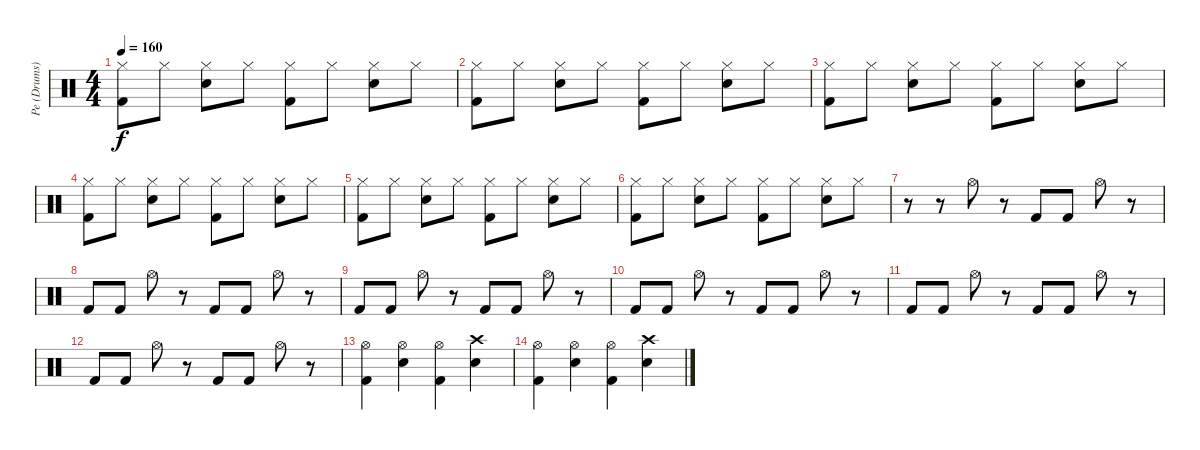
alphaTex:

\track ("Pe (Drums)" "Pe (Drums)") {instrument percussion}
\staff {score}
\articulation defaults
\ts (4 4)
\tempo 160
\clef neutral
\ks c
("Hi-Hat (closed)" "Kick (hit) 2").8{dy f} "Hi-Hat (closed)".8 ("Hi-Hat (closed)" "Snare (hit) 2").8 "Hi-Hat (closed)".8 ("Hi-Hat (closed)" "Kick (hit) 2").8 "Hi-Hat (closed)".8 ("Hi-Hat (closed)" "Snare (hit) 2").8 "Hi-Hat (closed)".8 |
("Hi-Hat (closed)" "Kick (hit) 2").8 "Hi-Hat (closed)".8 ("Hi-Hat (closed)" "Snare (hit) 2").8 "Hi-Hat (closed)".8 ("Hi-Hat (closed)" "Kick (hit) 2").8 "Hi-Hat (closed)".8 ("Hi-Hat (closed)" "Snare (hit) 2").8 "Hi-Hat (closed)".8 |
("Hi-Hat (closed)" "Kick (hit) 2").8 "Hi-Hat (closed)".8 ("Hi-Hat (closed)" "Snare (hit) 2").8 "Hi-Hat (closed)".8 ("Hi-Hat (closed)" "Kick (hit) 2").8 "Hi-Hat (closed)".8 ("Hi-Hat (closed)" "Snare (hit) 2").8 "Hi-Hat (closed)".8 |
("Hi-Hat (closed)" "Kick (hit) 2").8 "Hi-Hat (closed)".8 ("Hi-Hat (closed)" "Snare (hit) 2").8 "Hi-Hat (closed)".8 ("Hi-Hat (closed)" "Kick (hit) 2").8 "Hi-Hat (closed)".8 ("Hi-Hat (closed)" "Snare (hit) 2").8 "Hi-Hat (closed)".8 |
("Hi-Hat (closed)" "Kick (hit) 2").8 "Hi-Hat (closed)".8 ("Hi-Hat (closed)" "Snare (hit) 2").8 "Hi-Hat (closed)".8 ("Hi-Hat (closed)" "Kick (hit) 2").8 "Hi-Hat (closed)".8 ("Hi-Hat (closed)" "Snare (hit) 2").8 "Hi-Hat (closed)".8 |
("Hi-Hat (closed)" "Kick (hit) 2").8 "Hi-Hat (closed)".8 ("Hi-Hat (closed)" "Snare (hit) 2").8 "Hi-Hat (closed)".8 ("Hi-Hat (closed)" "Kick (hit) 2").8 "Hi-Hat (closed)".8 ("Hi-Hat (closed)" "Snare (hit) 2").8 "Hi-Hat (closed)".8 |
r.8 r.8 "Hi-Hat (open)".8 r.8 "Kick (hit) 2".8 "Kick (hit) 2".8 "Hi-Hat (open)".8 r.8 |
"Kick (hit) 2".8 "Kick (hit) 2".8 "Hi-Hat (open)".8 r.8 "Kick (hit) 2".8 "Kick (hit) 2".8 "Hi-Hat (open)".8 r.8 |
"Kick (hit) 2".8 "Kick (hit) 2".8 "Hi-Hat (open)".8 r.8 "Kick (hit) 2".8 "Kick (hit) 2".8 "Hi-Hat (open)".8 r.8 |
"Kick (hit) 2".8 "Kick (hit) 2".8 "Hi-Hat (open)".8 r.8 "Kick (hit) 2".8 "Kick (hit) 2".8 "Hi-Hat (open)".8 r.8 |
"Kick (hit) 2".8 "Kick (hit) 2".8 "Hi-Hat (open)".8 r.8 "Kick (hit) 2".8 "Kick (hit) 2".8 "Hi-Hat (open)".8 r.8 |
"Kick (hit) 2".8 "Kick (hit) 2".8 "Hi-Hat (open)".8 r.8 "Kick (hit) 2".8 "Kick (hit) 2".8 "Hi-Hat (open)".8 r.8 |
("Hi-Hat (open)" "Kick (hit) 2").4 ("Hi-Hat (open)" "Snare (hit) 2").4 ("Hi-Hat (open)" "Kick (hit) 2").4 ("Crash high (hit)" "Snare (hit) 2").4 |
("Hi-Hat (open)" "Kick (hit) 2").4 ("Hi-Hat (open)" "Snare (hit) 2").4 ("Hi-Hat (open)" "Kick (hit) 2").4 ("Crash high (hit)" "Snare (hit) 2").4
